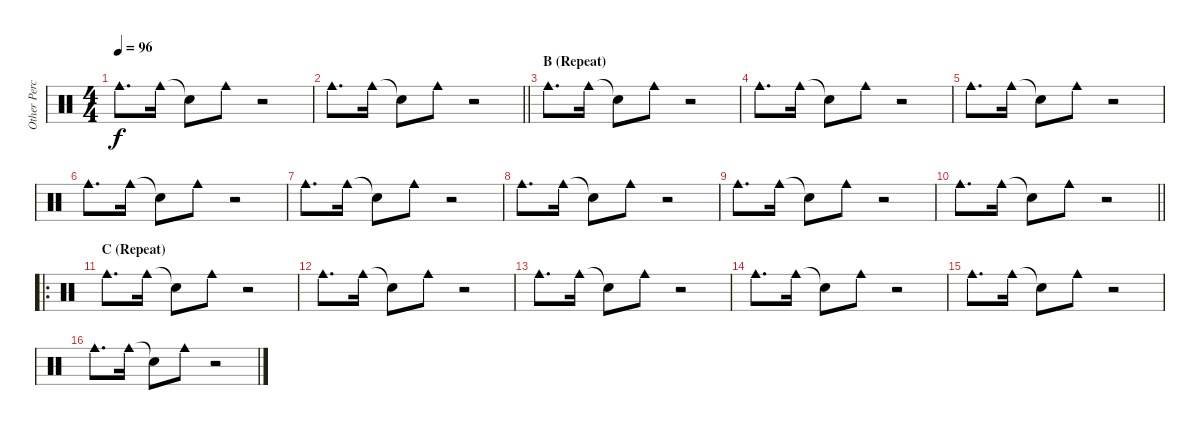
\track ("Other Perc." "Other Perc") {instrument percussion}
\staff {score}
\articulation defaults
\ts (4 4)
\tempo 96
\clef neutral
\ks c "Cowbell medium (hit)".8{d dy f} "Cowbell medium (hit)".16 "Snare (hit)"{t}.8 "Cowbell medium (hit)".8
r.2 |
\barLineRight lightlight "Cowbell medium (hit)".8{d} "Cowbell medium (hit)".16 "Snare (hit)"{t}.8 "Cowbell medium (hit)".8
r.2 |
\section ("" "B (Repeat)")
"Cowbell medium (hit)".8{d} "Cowbell medium (hit)".16 "Snare (hit)"{t}.8 "Cowbell medium (hit)".8 r.2 |
"Cowbell medium (hit)".8{d} "Cowbell medium (hit)".16 "Snare (hit)"{t}.8 "Cowbell medium (hit)".8 r.2 |
"Cowbell medium (hit)".8{d} "Cowbell medium (hit)".16 "Snare (hit)"{t}.8 "Cowbell medium (hit)".8 r.2 |
"Cowbell medium (hit)".8{d} "Cowbell medium (hit)".16 "Snare (hit)"{t}.8 "Cowbell medium (hit)".8 r.2 |
"Cowbell medium (hit)".8{d} "Cowbell medium (hit)".16 "Snare (hit)"{t}.8 "Cowbell medium (hit)".8 r.2 |
"Cowbell medium (hit)".8{d} "Cowbell medium (hit)".16 "Snare (hit)"{t}.8 "Cowbell medium (hit)".8 r.2 |
"Cowbell medium (hit)".8{d} "Cowbell medium (hit)".16 "Snare (hit)"{t}.8 "Cowbell medium (hit)".8 r.2 |
\barLineRight lightlight "Cowbell medium (hit)".8{d} "Cowbell medium (hit)".16 "Snare (hit)"{t}.8 "Cowbell medium (hit)".8
r.2 |
\ro
\section ("" "C (Repeat)")
"Cowbell medium (hit)".8{d} "Cowbell medium (hit)".16 "Snare (hit)"{t}.8 "Cowbell medium (hit)".8 r.2 |
"Cowbell medium (hit)".8{d} "Cowbell medium (hit)".16 "Snare (hit)"{t}.8 "Cowbell medium (hit)".8 r.2 |
"Cowbell medium (hit)".8{d} "Cowbell medium (hit)".16 "Snare (hit)"{t}.8 "Cowbell medium (hit)".8 r.2 |
"Cowbell medium (hit)".8{d} "Cowbell medium (hit)".16 "Snare (hit)"{t}.8 "Cowbell medium (hit)".8 r.2 |
"Cowbell medium (hit)".8{d} "Cowbell medium (hit)".16 "Snare (hit)"{t}.8 "Cowbell medium (hit)".8 r.2 |
"Cowbell medium (hit)".8{d} "Cowbell medium (hit)".16 "Snare (hit)"{t}.8 "Cowbell medium (hit)".8 r.2
